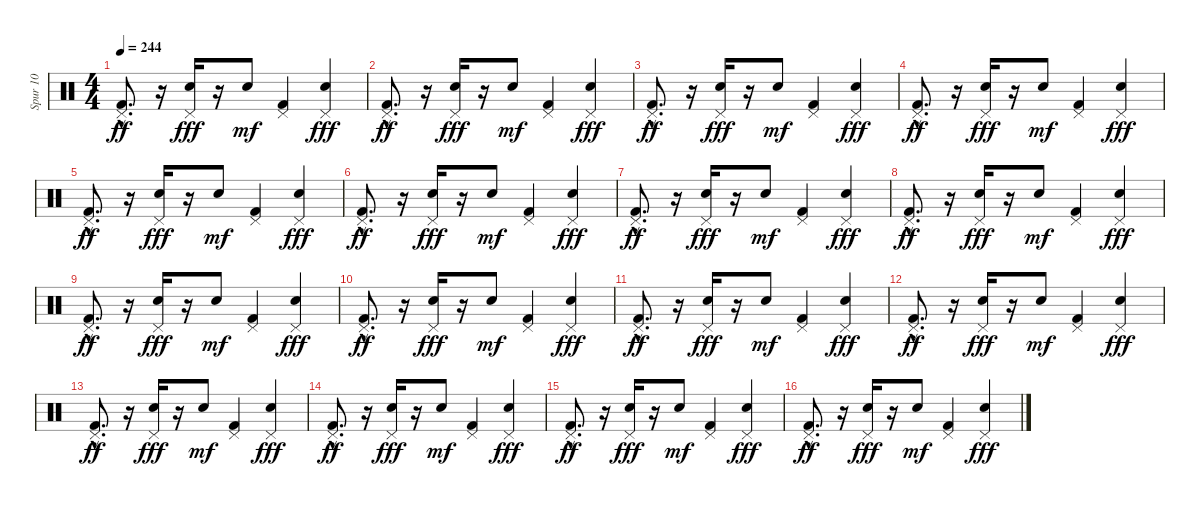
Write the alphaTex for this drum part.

\track ("Spur 10" "Spur 10") {instrument percussion}
\staff {score}
\articulation defaults
\ts (4 4)
\tempo 244
\clef neutral
\ks c
("Pedal Hi-Hat (hit)" "Kick (hit) 2"{hac}).8{d dy ff} r.16 ("Pedal Hi-Hat (hit)" "Electric Snare (hit)").16{dy fff} r.16 "Electric Snare (hit)".8{dy mf} ("Pedal Hi-Hat (hit)" "Kick (hit) 2").4 ("Pedal Hi-Hat (hit)" "Electric Snare (hit)").4{dy fff} |
("Pedal Hi-Hat (hit)" "Kick (hit) 2"{hac}).8{d dy ff} r.16 ("Pedal Hi-Hat (hit)" "Electric Snare (hit)").16{dy fff} r.16 "Electric Snare (hit)".8{dy mf} ("Pedal Hi-Hat (hit)" "Kick (hit) 2").4 ("Pedal Hi-Hat (hit)" "Electric Snare (hit)").4{dy fff} |
("Pedal Hi-Hat (hit)" "Kick (hit) 2"{hac}).8{d dy ff} r.16 ("Pedal Hi-Hat (hit)" "Electric Snare (hit)").16{dy fff} r.16 "Electric Snare (hit)".8{dy mf} ("Pedal Hi-Hat (hit)" "Kick (hit) 2").4 ("Pedal Hi-Hat (hit)" "Electric Snare (hit)").4{dy fff} |
("Pedal Hi-Hat (hit)" "Kick (hit) 2"{hac}).8{d dy ff} r.16 ("Pedal Hi-Hat (hit)" "Electric Snare (hit)").16{dy fff} r.16 "Electric Snare (hit)".8{dy mf} ("Pedal Hi-Hat (hit)" "Kick (hit) 2").4 ("Pedal Hi-Hat (hit)" "Electric Snare (hit)").4{dy fff} |
("Pedal Hi-Hat (hit)" "Kick (hit) 2"{hac}).8{d dy ff} r.16 ("Pedal Hi-Hat (hit)" "Electric Snare (hit)").16{dy fff} r.16 "Electric Snare (hit)".8{dy mf} ("Pedal Hi-Hat (hit)" "Kick (hit) 2").4 ("Pedal Hi-Hat (hit)" "Electric Snare (hit)").4{dy fff} |
("Pedal Hi-Hat (hit)" "Kick (hit) 2"{hac}).8{d dy ff} r.16 ("Pedal Hi-Hat (hit)" "Electric Snare (hit)").16{dy fff} r.16 "Electric Snare (hit)".8{dy mf} ("Pedal Hi-Hat (hit)" "Kick (hit) 2").4 ("Pedal Hi-Hat (hit)" "Electric Snare (hit)").4{dy fff} |
("Pedal Hi-Hat (hit)" "Kick (hit) 2"{hac}).8{d dy ff} r.16 ("Pedal Hi-Hat (hit)" "Electric Snare (hit)").16{dy fff} r.16 "Electric Snare (hit)".8{dy mf} ("Pedal Hi-Hat (hit)" "Kick (hit) 2").4 ("Pedal Hi-Hat (hit)" "Electric Snare (hit)").4{dy fff} |
("Pedal Hi-Hat (hit)" "Kick (hit) 2"{hac}).8{d dy ff} r.16 ("Pedal Hi-Hat (hit)" "Electric Snare (hit)").16{dy fff} r.16 "Electric Snare (hit)".8{dy mf} ("Pedal Hi-Hat (hit)" "Kick (hit) 2").4 ("Pedal Hi-Hat (hit)" "Electric Snare (hit)").4{dy fff} |
("Pedal Hi-Hat (hit)" "Kick (hit) 2"{hac}).8{d dy ff} r.16 ("Pedal Hi-Hat (hit)" "Electric Snare (hit)").16{dy fff} r.16 "Electric Snare (hit)".8{dy mf} ("Pedal Hi-Hat (hit)" "Kick (hit) 2").4 ("Pedal Hi-Hat (hit)" "Electric Snare (hit)").4{dy fff} |
("Pedal Hi-Hat (hit)" "Kick (hit) 2"{hac}).8{d dy ff} r.16 ("Pedal Hi-Hat (hit)" "Electric Snare (hit)").16{dy fff} r.16 "Electric Snare (hit)".8{dy mf} ("Pedal Hi-Hat (hit)" "Kick (hit) 2").4 ("Pedal Hi-Hat (hit)" "Electric Snare (hit)").4{dy fff} |
("Pedal Hi-Hat (hit)" "Kick (hit) 2"{hac}).8{d dy ff} r.16 ("Pedal Hi-Hat (hit)" "Electric Snare (hit)").16{dy fff} r.16 "Electric Snare (hit)".8{dy mf} ("Pedal Hi-Hat (hit)" "Kick (hit) 2").4 ("Pedal Hi-Hat (hit)" "Electric Snare (hit)").4{dy fff} |
("Pedal Hi-Hat (hit)" "Kick (hit) 2"{hac}).8{d dy ff} r.16 ("Pedal Hi-Hat (hit)" "Electric Snare (hit)").16{dy fff} r.16 "Electric Snare (hit)".8{dy mf} ("Pedal Hi-Hat (hit)" "Kick (hit) 2").4 ("Pedal Hi-Hat (hit)" "Electric Snare (hit)").4{dy fff} |
("Pedal Hi-Hat (hit)" "Kick (hit) 2"{hac}).8{d dy ff} r.16 ("Pedal Hi-Hat (hit)" "Electric Snare (hit)").16{dy fff} r.16 "Electric Snare (hit)".8{dy mf} ("Pedal Hi-Hat (hit)" "Kick (hit) 2").4 ("Pedal Hi-Hat (hit)" "Electric Snare (hit)").4{dy fff} |
("Pedal Hi-Hat (hit)" "Kick (hit) 2"{hac}).8{d dy ff} r.16 ("Pedal Hi-Hat (hit)" "Electric Snare (hit)").16{dy fff} r.16 "Electric Snare (hit)".8{dy mf} ("Pedal Hi-Hat (hit)" "Kick (hit) 2").4 ("Pedal Hi-Hat (hit)" "Electric Snare (hit)").4{dy fff} |
("Pedal Hi-Hat (hit)" "Kick (hit) 2"{hac}).8{d dy ff} r.16 ("Pedal Hi-Hat (hit)" "Electric Snare (hit)").16{dy fff} r.16 "Electric Snare (hit)".8{dy mf} ("Pedal Hi-Hat (hit)" "Kick (hit) 2").4 ("Pedal Hi-Hat (hit)" "Electric Snare (hit)").4{dy fff} |
("Pedal Hi-Hat (hit)" "Kick (hit) 2"{hac}).8{d dy ff} r.16 ("Pedal Hi-Hat (hit)" "Electric Snare (hit)").16{dy fff} r.16 "Electric Snare (hit)".8{dy mf} ("Pedal Hi-Hat (hit)" "Kick (hit) 2").4 ("Pedal Hi-Hat (hit)" "Electric Snare (hit)").4{dy fff}
